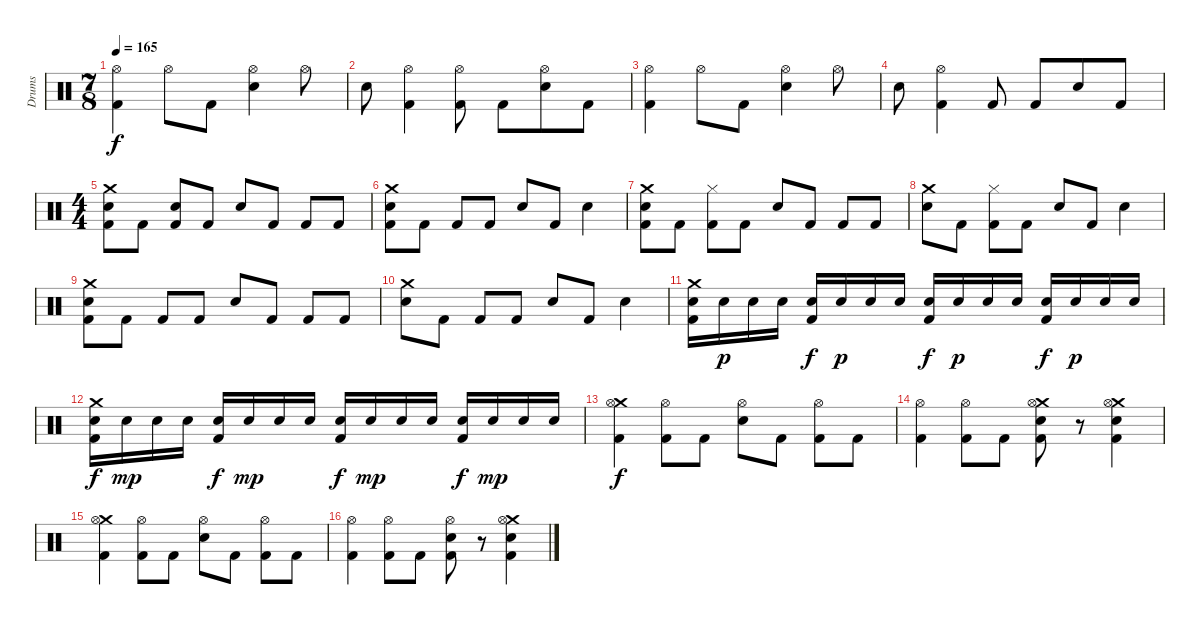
\track ("Drums" "Drums") {instrument percussion}
\staff {score}
\articulation defaults
\ts (7 8)
\tempo 165
\clef neutral
\ks c
("Hi-Hat (open)" "Kick (hit) 2").4{dy f} "Hi-Hat (open)".8 "Kick (hit) 2".8 ("Hi-Hat (open)" "Electric Snare (hit)").4 "Hi-Hat (open)".8 |
"Snare (hit) 2".8 ("Hi-Hat (open)" "Kick (hit) 2").4 ("Hi-Hat (open)" "Kick (hit) 2").8 "Kick (hit) 2".8 ("Hi-Hat (open)" "Electric Snare (hit)").8 "Kick (hit) 2".8 |
("Hi-Hat (open)" "Kick (hit) 2").4 "Hi-Hat (open)".8 "Kick (hit) 2".8 ("Hi-Hat (open)" "Electric Snare (hit)").4 "Hi-Hat (open)".8 |
"Snare (hit) 2".8 ("Hi-Hat (open)" "Kick (hit) 2").4 "Kick (hit) 2".8 "Kick (hit) 2".8 "Electric Snare (hit)".8 "Kick (hit) 2".8 |
\ts (4 4)
("Crash medium (hit)" "Snare (hit) 2" "Kick (hit) 2").8 "Kick (hit) 2".8 ("Snare (hit) 2" "Kick (hit) 2").8 "Kick (hit) 2".8 "Electric Snare (hit)".8 "Kick (hit) 2".8 "Kick (hit) 2".8 "Kick (hit) 2".8 |
("Crash medium (hit)" "Electric Snare (hit)" "Kick (hit) 2").8 "Kick (hit) 2".8 "Kick (hit) 2".8 "Kick (hit) 2".8 "Electric Snare (hit)".8 "Kick (hit) 2".8 "Electric Snare (hit)".4 |
("Crash medium (hit)" "Snare (hit) 2" "Kick (hit) 2").8 "Kick (hit) 2".8 ("Hi-Hat (closed)" "Kick (hit) 2").8 "Kick (hit) 2".8 "Electric Snare (hit)".8 "Kick (hit) 2".8 "Kick (hit) 2".8 "Kick (hit) 2".8 |
("Crash medium (hit)" "Electric Snare (hit)").8 "Kick (hit) 2".8 ("Hi-Hat (closed)" "Kick (hit) 2").8 "Kick (hit) 2".8 "Electric Snare (hit)".8 "Kick (hit) 2".8 "Electric Snare (hit)".4 |
("Crash medium (hit)" "Snare (hit) 2" "Kick (hit) 2").8 "Kick (hit) 2".8 "Kick (hit) 2".8 "Kick (hit) 2".8 "Electric Snare (hit)".8 "Kick (hit) 2".8 "Kick (hit) 2".8 "Kick (hit) 2".8 |
("Crash medium (hit)" "Electric Snare (hit)").8 "Kick (hit) 2".8 "Kick (hit) 2".8 "Kick (hit) 2".8 "Electric Snare (hit)".8 "Kick (hit) 2".8 "Electric Snare (hit)".4 |
("Crash medium (hit)" "Snare (hit) 2" "Kick (hit) 2").16 "Electric Snare (hit)".16{dy p} "Electric Snare (hit)".16 "Electric Snare (hit)".16 ("Snare (hit) 2" "Kick (hit) 2").16{dy f} "Electric Snare (hit)".16{dy p} "Electric Snare (hit)".16 "Electric Snare (hit)".16 ("Snare (hit) 2" "Kick (hit) 2").16{dy f} "Electric Snare (hit)".16{dy p} "Electric Snare (hit)".16 "Electric Snare (hit)".16 ("Snare (hit) 2" "Kick (hit) 2").16{dy f} "Electric Snare (hit)".16{dy p} "Electric Snare (hit)".16 "Electric Snare (hit)".16 |
("Crash medium (hit)" "Snare (hit) 2" "Kick (hit) 2").16{dy f} "Electric Snare (hit)".16{dy mp} "Electric Snare (hit)".16 "Electric Snare (hit)".16 ("Snare (hit) 2" "Kick (hit) 2").16{dy f} "Electric Snare (hit)".16{dy mp} "Electric Snare (hit)".16 "Electric Snare (hit)".16 ("Snare (hit) 2" "Kick (hit) 2").16{dy f} "Electric Snare (hit)".16{dy mp} "Electric Snare (hit)".16 "Electric Snare (hit)".16 ("Snare (hit) 2" "Kick (hit) 2").16{dy f} "Electric Snare (hit)".16{dy mp} "Electric Snare (hit)".16 "Electric Snare (hit)".16 |
("Crash medium (hit)" "Hi-Hat (open)" "Kick (hit) 2").4{dy f} ("Hi-Hat (open)" "Kick (hit) 2").8 "Kick (hit) 2".8 ("Hi-Hat (open)" "Electric Snare (hit)").8 "Kick (hit) 2".8 ("Hi-Hat (open)" "Kick (hit) 2").8 "Kick (hit) 2".8 |
("Hi-Hat (open)" "Kick (hit) 2").4 ("Hi-Hat (open)" "Kick (hit) 2").8 "Kick (hit) 2".8 ("Crash medium (hit)" "Hi-Hat (open)" "Electric Snare (hit)" "Kick (hit) 2").8 r.8 ("Crash medium (hit)" "Hi-Hat (open)" "Electric Snare (hit)" "Kick (hit) 2").4 |
("Crash medium (hit)" "Hi-Hat (open)" "Kick (hit) 2").4 ("Hi-Hat (open)" "Kick (hit) 2").8 "Kick (hit) 2".8 ("Hi-Hat (open)" "Electric Snare (hit)").8 "Kick (hit) 2".8 ("Hi-Hat (open)" "Kick (hit) 2").8 "Kick (hit) 2".8 |
("Hi-Hat (open)" "Kick (hit) 2").4 ("Hi-Hat (open)" "Kick (hit) 2").8 "Kick (hit) 2".8 ("Hi-Hat (open)" "Electric Snare (hit)" "Kick (hit) 2").8 r.8 ("Crash medium (hit)" "Hi-Hat (open)" "Electric Snare (hit)" "Kick (hit) 2").4
